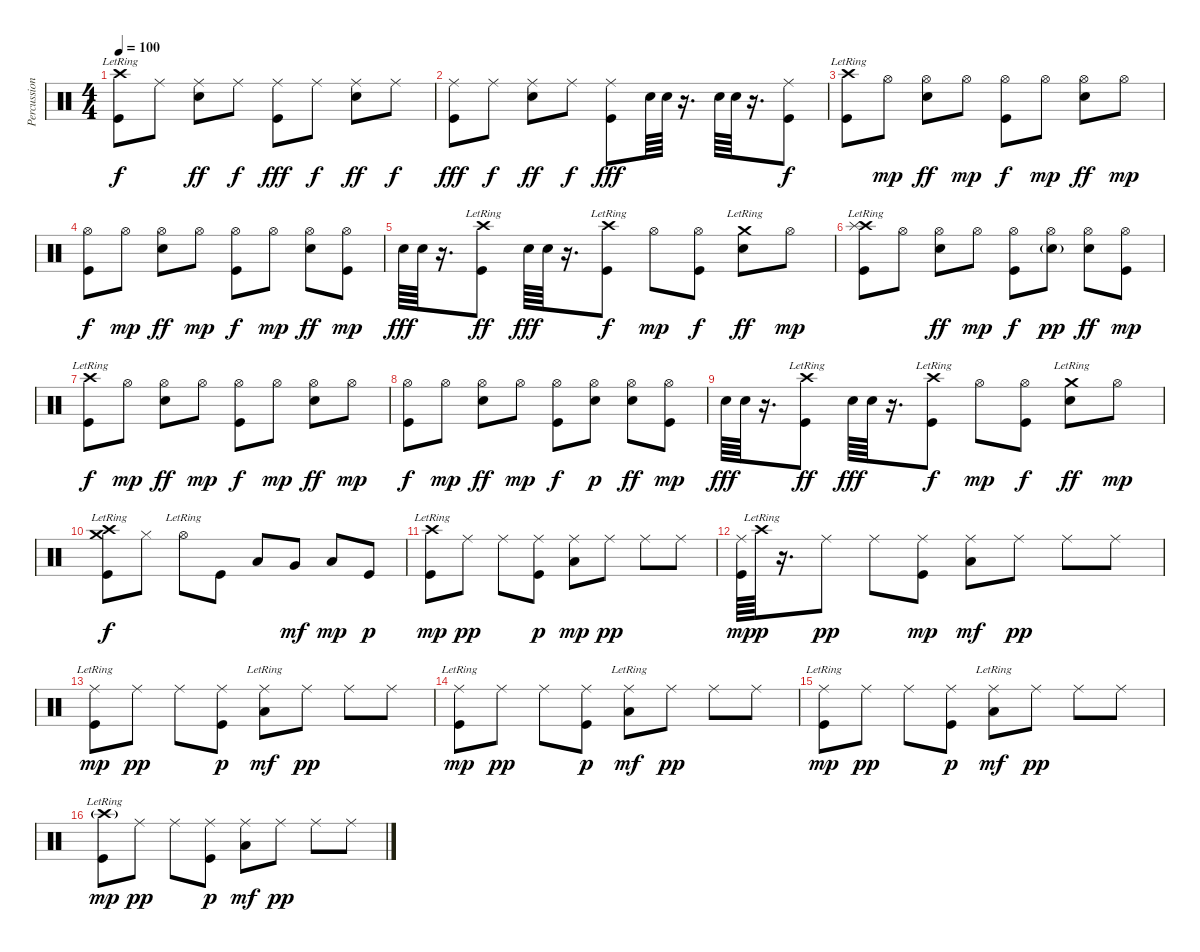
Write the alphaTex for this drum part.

\track ("Percussion" "Percussion") {instrument percussion}
\staff {score}
\articulation defaults
\ts (4 4)
\tempo 100
\clef neutral
\ks c
("Crash high (hit)"{lr} "Kick (hit)").8{dy f} "Ride (middle)".8 ("Ride (middle)" "Electric Snare (hit)").8{dy ff} "Ride (middle)".8{dy f} ("Ride (middle)" "Kick (hit)").8{dy fff} "Ride (middle)".8{dy f} ("Ride (middle)" "Electric Snare (hit)").8{dy ff} "Ride (middle)".8{dy f} |
("Ride (middle)" "Kick (hit)").8{dy fff} "Ride (middle)".8{dy f} ("Ride (middle)" "Electric Snare (hit)").8{dy ff} "Ride (middle)".8{dy f} ("Ride (middle)" "Kick (hit)").8{dy fff} "Electric Snare (hit)".64 "Electric Snare (hit)".64 r.16{d} "Electric Snare (hit)".64 "Electric Snare (hit)".64 r.16{d} ("Ride (middle)" "Kick (hit)").8{dy f} |
("Crash high (hit)"{lr} "Kick (hit)").8 "Hi-Hat (open)".8{dy mp} ("Hi-Hat (open)" "Electric Snare (hit)").8{dy ff} "Hi-Hat (open)".8{dy mp} ("Hi-Hat (open)" "Kick (hit)").8{dy f} "Hi-Hat (open)".8{dy mp} ("Hi-Hat (open)" "Electric Snare (hit)").8{dy ff} "Hi-Hat (open)".8{dy mp} |
("Hi-Hat (open)" "Kick (hit)").8{dy f} "Hi-Hat (open)".8{dy mp} ("Hi-Hat (open)" "Electric Snare (hit)").8{dy ff} "Hi-Hat (open)".8{dy mp} ("Hi-Hat (open)" "Kick (hit)").8{dy f} "Hi-Hat (open)".8{dy mp} ("Hi-Hat (open)" "Electric Snare (hit)").8{dy ff} ("Hi-Hat (open)" "Kick (hit)").8{dy mp} |
"Electric Snare (hit)".64{dy fff} "Electric Snare (hit)".64 r.16{d} ("Crash high (hit)"{lr} "Kick (hit)").8{dy ff} "Electric Snare (hit)".64{dy fff} "Electric Snare (hit)".64 r.16{d} ("Crash high (hit)"{lr} "Kick (hit)").8{dy f} "Hi-Hat (open)".8{dy mp} ("Hi-Hat (open)" "Kick (hit)").8{dy f} ("Crash medium (hit)"{lr} "Electric Snare (hit)").8{dy ff} "Hi-Hat (open)".8{dy mp} |
("Crash high (hit)"{lr} "Splash (hit)"{lr} "Kick (hit)").8 "Hi-Hat (open)".8 ("Hi-Hat (open)" "Electric Snare (hit)").8{dy ff} "Hi-Hat (open)".8{dy mp} ("Hi-Hat (open)" "Kick (hit)").8{dy f} ("Hi-Hat (open)" "Electric Snare (hit)"{g}).8{dy pp} ("Hi-Hat (open)" "Electric Snare (hit)").8{dy ff} ("Hi-Hat (open)" "Kick (hit)").8{dy mp} |
("Crash high (hit)"{lr} "Kick (hit)").8{dy f} "Hi-Hat (open)".8{dy mp} ("Hi-Hat (open)" "Electric Snare (hit)").8{dy ff} "Hi-Hat (open)".8{dy mp} ("Hi-Hat (open)" "Kick (hit)").8{dy f} "Hi-Hat (open)".8{dy mp} ("Hi-Hat (open)" "Electric Snare (hit)").8{dy ff} "Hi-Hat (open)".8{dy mp} |
("Hi-Hat (open)" "Kick (hit)").8{dy f} "Hi-Hat (open)".8{dy mp} ("Hi-Hat (open)" "Electric Snare (hit)").8{dy ff} "Hi-Hat (open)".8{dy mp} ("Hi-Hat (open)" "Kick (hit)").8{dy f} ("Hi-Hat (open)" "Electric Snare (hit)").8{dy p} ("Hi-Hat (open)" "Electric Snare (hit)").8{dy ff} ("Hi-Hat (open)" "Kick (hit)").8{dy mp} |
"Electric Snare (hit)".64{dy fff} "Electric Snare (hit)".64 r.16{d} ("Crash high (hit)"{lr} "Kick (hit)").8{dy ff} "Electric Snare (hit)".64{dy fff} "Electric Snare (hit)".64 r.16{d} ("Crash high (hit)"{lr} "Kick (hit)").8{dy f} "Hi-Hat (open)".8{dy mp} ("Hi-Hat (open)" "Kick (hit)").8{dy f} ("Crash medium (hit)"{lr} "Electric Snare (hit)").8{dy ff} "Hi-Hat (open)".8{dy mp} |
("Crash medium (hit)"{lr} "Crash high (hit)"{lr} "Kick (hit)").8{dy f} "Hi-Hat (closed)".8 "Hi-Hat (open)"{lr}.8 "Kick (hit)".8 "Low Tom (hit)".8 "Very Low Tom (hit)".8{dy mf} "Low Floor Tom (hit)".8{dy mp} "Kick (hit)".8{dy p} |
("Crash high (hit)"{lr} "Kick (hit)").8{dy mp} "Ride (middle)".8{dy pp} "Ride (middle)".8 ("Ride (middle)" "Kick (hit)").8{dy p} ("Ride (middle)" "Low Floor Tom (hit)").8{dy mp} "Ride (middle)".8{dy pp} "Ride (middle)".8 "Ride (middle)".8 |
("Ride (middle)" "Kick (hit)").64{dy mp} "Crash high (hit)"{lr}.64{dy p} r.16{d} "Ride (middle)".8{dy pp} "Ride (middle)".8 ("Ride (middle)" "Kick (hit)").8{dy mp} ("Ride (middle)" "Low Floor Tom (hit)").8{dy mf} "Ride (middle)".8{dy pp} "Ride (middle)".8 "Ride (middle)".8 |
("Ride (middle)"{lr} "Kick (hit)").8{dy mp} "Ride (middle)".8{dy pp} "Ride (middle)".8 ("Ride (middle)" "Kick (hit)").8{dy p} ("Ride (middle)"{lr} "Low Floor Tom (hit)").8{dy mf} "Ride (middle)".8{dy pp} "Ride (middle)".8 "Ride (middle)".8 |
("Ride (middle)"{lr} "Kick (hit)").8{dy mp} "Ride (middle)".8{dy pp} "Ride (middle)".8 ("Ride (middle)" "Kick (hit)").8{dy p} ("Ride (middle)"{lr} "Low Floor Tom (hit)").8{dy mf} "Ride (middle)".8{dy pp} "Ride (middle)".8 "Ride (middle)".8 |
("Ride (middle)"{lr} "Kick (hit)").8{dy mp} "Ride (middle)".8{dy pp} "Ride (middle)".8 ("Ride (middle)" "Kick (hit)").8{dy p} ("Ride (middle)"{lr} "Low Floor Tom (hit)").8{dy mf} "Ride (middle)".8{dy pp} "Ride (middle)".8 "Ride (middle)".8 |
("Crash high (hit)"{g lr} "Kick (hit)").8{dy mp} "Ride (middle)".8{dy pp} "Ride (middle)".8 ("Ride (middle)" "Kick (hit)").8{dy p} ("Ride (middle)" "Low Floor Tom (hit)").8{dy mf} "Ride (middle)".8{dy pp} "Ride (middle)".8 "Ride (middle)".8
